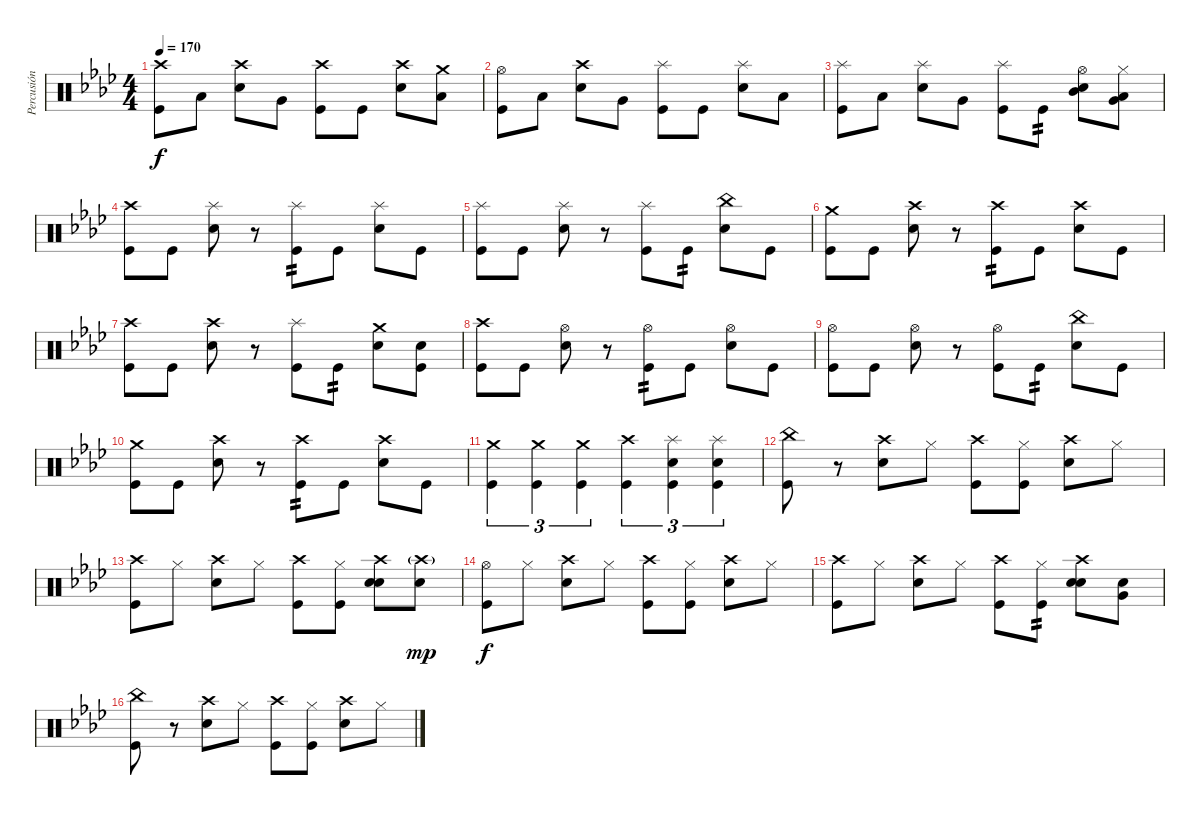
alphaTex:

\track ("Percusión" "Percusión") {instrument percussion}
\staff {score}
\articulation defaults
\ts (4 4)
\tempo 170
\clef neutral
\ks ab
("Crash high (hit)" "Kick (hit)").8{dy f} "Low Floor Tom (hit)".8 ("Crash high (hit)" "Electric Snare (hit)").8 "Very Low Tom (hit)".8 ("Crash high (hit)" "Kick (hit)").8 "Kick (hit)".8 ("Crash high (hit)" "Electric Snare (hit)").8 ("Crash medium (hit)" "Low Tom (hit)").8 |
("Hi-Hat (open)" "Kick (hit)").8 "Low Floor Tom (hit)".8 ("Crash high (hit)" "Electric Snare (hit)").8 "Very Low Tom (hit)".8 ("Splash (hit)" "Kick (hit)").8 "Kick (hit)".8 ("Splash (hit)" "Electric Snare (hit)").8 "Low Tom (hit)".8 |
("Splash (hit)" "Kick (hit)").8 "Low Floor Tom (hit)".8 ("Splash (hit)" "Electric Snare (hit)").8 "Very Low Tom (hit)".8 ("Splash (hit)" "Kick (hit)").8 "Kick (hit)".8{tp 2} ("Hi-Hat (open)" "Mid Tom (hit)" "Electric Snare (hit)").8 ("Hi-Hat (closed)" "Low Tom (hit)" "Very Low Tom (hit)").8 |
("Crash high (hit)" "Kick (hit)").8 "Kick (hit)".8 ("Splash (hit)" "Electric Snare (hit)").8 r.8 ("Splash (hit)" "Kick (hit)").8{tp 2} "Kick (hit)".8 ("Splash (hit)" "Electric Snare (hit)").8 "Kick (hit)".8 |
("Splash (hit)" "Kick (hit)").8 "Kick (hit)".8 ("Splash (hit)" "Electric Snare (hit)").8 r.8 ("Splash (hit)" "Kick (hit)").8 "Kick (hit)".8{tp 2} ("China (hit)" "Electric Snare (hit)").8 "Kick (hit)".8 |
("Crash medium (hit)" "Kick (hit)").8 "Kick (hit)".8 ("Crash high (hit)" "Electric Snare (hit)").8 r.8 ("Crash high (hit)" "Kick (hit)").8{tp 2} "Kick (hit)".8 ("Crash high (hit)" "Electric Snare (hit)").8 "Kick (hit)".8 |
("Crash high (hit)" "Kick (hit)").8 "Kick (hit)".8 ("Crash high (hit)" "Electric Snare (hit)").8 r.8 ("Splash (hit)" "Kick (hit)").8 "Kick (hit)".8{tp 2} ("Crash medium (hit)" "Electric Snare (hit)").8 ("Electric Snare (hit)" "Kick (hit)").8 |
("Crash high (hit)" "Kick (hit)").8 "Kick (hit)".8 ("Hi-Hat (open)" "Electric Snare (hit)").8 r.8 ("Hi-Hat (open)" "Kick (hit)").8{tp 2} "Kick (hit)".8 ("Hi-Hat (open)" "Electric Snare (hit)").8 "Kick (hit)".8 |
("Hi-Hat (open)" "Kick (hit)").8 "Kick (hit)".8 ("Hi-Hat (open)" "Electric Snare (hit)").8 r.8 ("Hi-Hat (open)" "Kick (hit)").8 "Kick (hit)".8{tp 2} ("China (hit)" "Electric Snare (hit)").8 "Kick (hit)".8 |
("Crash medium (hit)" "Kick (hit)").8 "Kick (hit)".8 ("Crash high (hit)" "Electric Snare (hit)").8 r.8 ("Crash high (hit)" "Kick (hit)").8{tp 2} "Kick (hit)".8 ("Crash high (hit)" "Electric Snare (hit)").8 "Kick (hit)".8 |
("Crash medium (hit)" "Kick (hit)").4{tu (3 2)} ("Crash medium (hit)" "Kick (hit)").4{tu (3 2)} ("Crash medium (hit)" "Kick (hit)").4{tu (3 2)} ("Crash high (hit)" "Kick (hit)").4{tu (3 2)} ("Splash (hit)" "Electric Snare (hit)" "Kick (hit)").4{tu (3 2)} ("Splash (hit)" "Electric Snare (hit)" "Kick (hit)").4{tu (3 2)} |
("China (hit)" "Kick (hit)").8 r.8 ("Crash high (hit)" "Electric Snare (hit)").8 "Hi-Hat (closed)".8 ("Crash high (hit)" "Kick (hit)").8 ("Hi-Hat (closed)" "Kick (hit)").8 ("Crash high (hit)" "Electric Snare (hit)").8 "Hi-Hat (closed)".8 |
("Crash high (hit)" "Kick (hit)").8 "Hi-Hat (closed)".8 ("Crash high (hit)" "Electric Snare (hit)").8 "Hi-Hat (closed)".8 ("Crash high (hit)" "Kick (hit)").8 ("Hi-Hat (closed)" "Kick (hit)").8 ("Crash high (hit)" "Electric Snare (hit)" "Hand Clap (hit)").8 ("Crash high (hit)"{g} "Hand Clap (hit)").8{dy mp} |
("Hi-Hat (open)" "Kick (hit)").8{dy f} "Hi-Hat (closed)".8 ("Crash high (hit)" "Electric Snare (hit)").8 "Hi-Hat (closed)".8 ("Crash high (hit)" "Kick (hit)").8 ("Hi-Hat (closed)" "Kick (hit)").8 ("Crash high (hit)" "Electric Snare (hit)").8 "Hi-Hat (closed)".8 |
("Crash high (hit)" "Kick (hit)").8 "Hi-Hat (closed)".8 ("Crash high (hit)" "Electric Snare (hit)").8 "Hi-Hat (closed)".8 ("Crash high (hit)" "Kick (hit)").8 ("Hi-Hat (closed)" "Kick (hit)").8{tp 2} ("Crash high (hit)" "Hand Clap (hit)" "Electric Snare (hit)").8 ("Hand Clap (hit)" "Very Low Tom (hit)").8 |
("China (hit)" "Kick (hit)").8 r.8 ("Crash high (hit)" "Electric Snare (hit)").8 "Hi-Hat (closed)".8 ("Crash high (hit)" "Kick (hit)").8 ("Hi-Hat (closed)" "Kick (hit)").8 ("Crash high (hit)" "Electric Snare (hit)").8 "Hi-Hat (closed)".8
